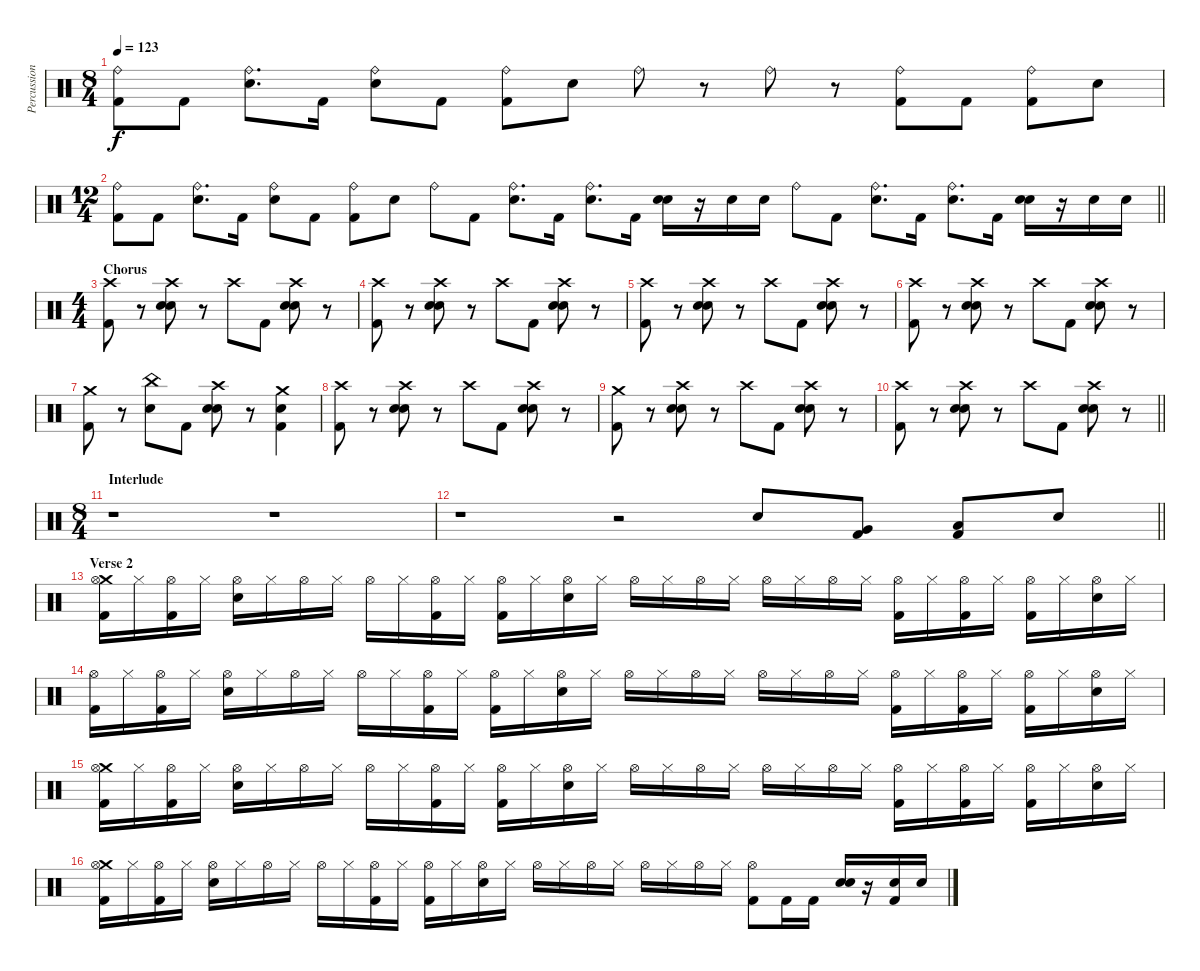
\track ("Percussion" "Percussion") {instrument percussion}
\staff {score}
\articulation defaults
\ts (8 4)
\tempo 123
\clef neutral
\ks c
("Ride (bell)" "Kick (hit) 2").8{dy f} "Kick (hit) 2".8 ("Ride (bell)" "Snare (hit) 2").8{d} "Kick (hit) 2".16 ("Ride (bell)" "Snare (hit) 2").8 "Kick (hit) 2".8 ("Ride (bell)" "Kick (hit) 2").8 "Snare (hit) 2".8 "Ride (bell)".8 r.8 "Ride (bell)".8 r.8 ("Ride (bell)" "Kick (hit) 2").8 "Kick (hit) 2".8 ("Ride (bell)" "Kick (hit) 2").8 "Snare (hit) 2".8 |
\ts (12 4)
\barLineRight lightlight
("Ride (bell)" "Kick (hit) 2").8 "Kick (hit) 2".8 ("Ride (bell)" "Snare (hit) 2").8{d} "Kick (hit) 2".16 ("Ride (bell)" "Snare (hit) 2").8 "Kick (hit) 2".8 ("Ride (bell)" "Kick (hit) 2").8 "Snare (hit) 2".8 "Ride (bell)".8 "Kick (hit) 2".8 ("Ride (bell)" "Snare (hit) 2").8{d} "Kick (hit) 2".16 ("Ride (bell)" "Snare (hit) 2").8{d} "Kick (hit) 2".16 ("Snare (hit) 2" "Snare (hit) 2").16 r.16 "Snare (hit) 2".16 "Snare (hit) 2".16 "Ride (bell)".8 "Kick (hit) 2".8 ("Ride (bell)" "Snare (hit) 2").8{d} "Kick (hit) 2".16 ("Ride (bell)" "Snare (hit) 2").8{d} "Kick (hit) 2".16 ("Snare (hit) 2" "Snare (hit) 2").16 r.16 "Snare (hit) 2".16 "Snare (hit) 2".16 |
\ts (4 4)
\section ("" "Chorus")
("Crash high (hit)" "Kick (hit) 2").8 r.8 ("Crash high (hit)" "Hand Clap (hit)" "Snare (hit) 2").8 r.8 "Crash high (hit)".8 "Kick (hit) 2".8 ("Crash high (hit)" "Hand Clap (hit)" "Snare (hit) 2").8 r.8 |
("Crash high (hit)" "Kick (hit) 2").8 r.8 ("Crash high (hit)" "Hand Clap (hit)" "Snare (hit) 2").8 r.8 "Crash high (hit)".8 "Kick (hit) 2".8 ("Crash high (hit)" "Hand Clap (hit)" "Snare (hit) 2").8 r.8 |
("Crash high (hit)" "Kick (hit) 2").8 r.8 ("Crash high (hit)" "Hand Clap (hit)" "Snare (hit) 2").8 r.8 "Crash high (hit)".8 "Kick (hit) 2".8 ("Crash high (hit)" "Hand Clap (hit)" "Snare (hit) 2").8 r.8 |
("Crash high (hit)" "Kick (hit) 2").8 r.8 ("Crash high (hit)" "Hand Clap (hit)" "Snare (hit) 2").8 r.8 "Crash high (hit)".8 "Kick (hit) 2".8 ("Crash high (hit)" "Hand Clap (hit)" "Snare (hit) 2").8 r.8 |
("Crash medium (hit)" "Kick (hit) 2").8 r.8 ("China (hit)" "Hand Clap (hit)").8 "Kick (hit) 2".8 ("Crash high (hit)" "Hand Clap (hit)" "Snare (hit) 2").8 r.8 ("Crash medium (hit)" "Hand Clap (hit)" "Kick (hit) 2").4 |
("Crash high (hit)" "Kick (hit) 2").8 r.8 ("Crash high (hit)" "Hand Clap (hit)" "Snare (hit) 2").8 r.8 "Crash high (hit)".8 "Kick (hit) 2".8 ("Crash high (hit)" "Hand Clap (hit)" "Snare (hit) 2").8 r.8 |
("Crash medium (hit)" "Kick (hit) 2").8 r.8 ("Crash high (hit)" "Hand Clap (hit)" "Snare (hit) 2").8 r.8 "Crash high (hit)".8 "Kick (hit) 2".8 ("Crash high (hit)" "Hand Clap (hit)" "Snare (hit) 2").8 r.8 |
\barLineRight lightlight
("Crash high (hit)" "Kick (hit) 2").8 r.8 ("Crash high (hit)" "Hand Clap (hit)" "Snare (hit) 2").8 r.8 "Crash high (hit)".8 "Kick (hit) 2".8 ("Crash high (hit)" "Hand Clap (hit)" "Snare (hit) 2").8 r.8 |
\ts (8 4)
\section ("" "Interlude")
r.1 r.1 |
\barLineRight lightlight
r.1 r.2 "Snare (hit) 2".8 ("Very Low Tom (hit)" "Kick (hit) 2").8 ("Low Floor Tom (hit)" "Kick (hit) 2").8 "Snare (hit) 2".8 |
\section ("" "Verse 2")
("Crash medium (hit)" "Hi-Hat (open)" "Kick (hit) 2").16 "Hi-Hat (closed)".16 ("Hi-Hat (open)" "Kick (hit) 2").16 "Hi-Hat (closed)".16 ("Hi-Hat (open)" "Snare (hit) 2").16 "Hi-Hat (closed)".16 "Hi-Hat (open)".16 "Hi-Hat (closed)".16 "Hi-Hat (open)".16 "Hi-Hat (closed)".16 ("Hi-Hat (open)" "Kick (hit) 2").16 "Hi-Hat (closed)".16 ("Hi-Hat (open)" "Kick (hit) 2").16 "Hi-Hat (closed)".16 ("Hi-Hat (open)" "Snare (hit) 2").16 "Hi-Hat (closed)".16 "Hi-Hat (open)".16 "Hi-Hat (closed)".16 "Hi-Hat (open)".16 "Hi-Hat (closed)".16 "Hi-Hat (open)".16 "Hi-Hat (closed)".16 "Hi-Hat (open)".16 "Hi-Hat (closed)".16 ("Hi-Hat (open)" "Kick (hit) 2").16 "Hi-Hat (closed)".16 ("Hi-Hat (open)" "Kick (hit) 2").16 "Hi-Hat (closed)".16 ("Hi-Hat (open)" "Kick (hit) 2").16 "Hi-Hat (closed)".16 ("Hi-Hat (open)" "Snare (hit) 2").16 "Hi-Hat (closed)".16 |
("Hi-Hat (open)" "Kick (hit) 2").16 "Hi-Hat (closed)".16 ("Hi-Hat (open)" "Kick (hit) 2").16 "Hi-Hat (closed)".16 ("Hi-Hat (open)" "Snare (hit) 2").16 "Hi-Hat (closed)".16 "Hi-Hat (open)".16 "Hi-Hat (closed)".16 "Hi-Hat (open)".16 "Hi-Hat (closed)".16 ("Hi-Hat (open)" "Kick (hit) 2").16 "Hi-Hat (closed)".16 ("Hi-Hat (open)" "Kick (hit) 2").16 "Hi-Hat (closed)".16 ("Hi-Hat (open)" "Snare (hit) 2").16 "Hi-Hat (closed)".16 "Hi-Hat (open)".16 "Hi-Hat (closed)".16 "Hi-Hat (open)".16 "Hi-Hat (closed)".16 "Hi-Hat (open)".16 "Hi-Hat (closed)".16 "Hi-Hat (open)".16 "Hi-Hat (closed)".16 ("Hi-Hat (open)" "Kick (hit) 2").16 "Hi-Hat (closed)".16 ("Hi-Hat (open)" "Kick (hit) 2").16 "Hi-Hat (closed)".16 ("Hi-Hat (open)" "Kick (hit) 2").16 "Hi-Hat (closed)".16 ("Hi-Hat (open)" "Snare (hit) 2").16 "Hi-Hat (closed)".16 |
("Crash medium (hit)" "Hi-Hat (open)" "Kick (hit) 2").16 "Hi-Hat (closed)".16 ("Hi-Hat (open)" "Kick (hit) 2").16 "Hi-Hat (closed)".16 ("Hi-Hat (open)" "Snare (hit) 2").16 "Hi-Hat (closed)".16 "Hi-Hat (open)".16 "Hi-Hat (closed)".16 "Hi-Hat (open)".16 "Hi-Hat (closed)".16 ("Hi-Hat (open)" "Kick (hit) 2").16 "Hi-Hat (closed)".16 ("Hi-Hat (open)" "Kick (hit) 2").16 "Hi-Hat (closed)".16 ("Hi-Hat (open)" "Snare (hit) 2").16 "Hi-Hat (closed)".16 "Hi-Hat (open)".16 "Hi-Hat (closed)".16 "Hi-Hat (open)".16 "Hi-Hat (closed)".16 "Hi-Hat (open)".16 "Hi-Hat (closed)".16 "Hi-Hat (open)".16 "Hi-Hat (closed)".16 ("Hi-Hat (open)" "Kick (hit) 2").16 "Hi-Hat (closed)".16 ("Hi-Hat (open)" "Kick (hit) 2").16 "Hi-Hat (closed)".16 ("Hi-Hat (open)" "Kick (hit) 2").16 "Hi-Hat (closed)".16 ("Hi-Hat (open)" "Snare (hit) 2").16 "Hi-Hat (closed)".16 |
("Crash medium (hit)" "Hi-Hat (open)" "Kick (hit) 2").16 "Hi-Hat (closed)".16 ("Hi-Hat (open)" "Kick (hit) 2").16 "Hi-Hat (closed)".16 ("Hi-Hat (open)" "Snare (hit) 2").16 "Hi-Hat (closed)".16 "Hi-Hat (open)".16 "Hi-Hat (closed)".16 "Hi-Hat (open)".16 "Hi-Hat (closed)".16 ("Hi-Hat (open)" "Kick (hit) 2").16 "Hi-Hat (closed)".16 ("Hi-Hat (open)" "Kick (hit) 2").16 "Hi-Hat (closed)".16 ("Hi-Hat (open)" "Snare (hit) 2").16 "Hi-Hat (closed)".16 "Hi-Hat (open)".16 "Hi-Hat (closed)".16 "Hi-Hat (open)".16 "Hi-Hat (closed)".16 "Hi-Hat (open)".16 "Hi-Hat (closed)".16 "Hi-Hat (open)".16 "Hi-Hat (closed)".16 ("Hi-Hat (open)" "Kick (hit) 2").8 "Kick (hit) 2".16 "Kick (hit) 2".16 ("Snare (hit) 2" "Snare (hit) 2").16 r.16 ("Snare (hit) 2" "Kick (hit) 2").16 "Snare (hit) 2".16
